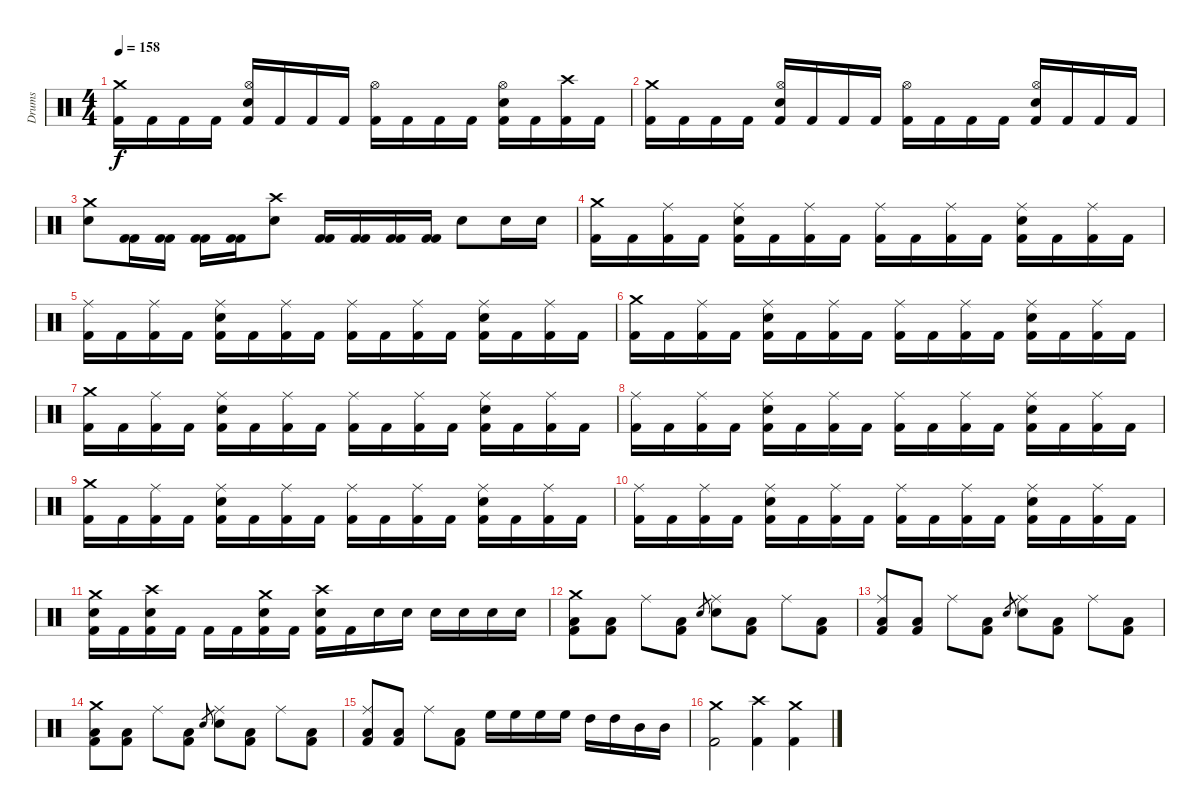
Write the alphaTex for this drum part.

\track ("Drums" "Drums") {instrument percussion}
\staff {score}
\articulation defaults
\ts (4 4)
\tempo 158
\clef neutral
\ks c
("Crash medium (hit)" "Kick (hit) 2").16{dy f} "Kick (hit) 2".16 "Kick (hit) 2".16 "Kick (hit) 2".16 ("Hi-Hat (open)" "Electric Snare (hit)" "Kick (hit) 2").16 "Kick (hit) 2".16 "Kick (hit) 2".16 "Kick (hit) 2".16 ("Hi-Hat (open)" "Kick (hit) 2").16 "Kick (hit) 2".16 "Kick (hit) 2".16 "Kick (hit) 2".16 ("Hi-Hat (open)" "Electric Snare (hit)" "Kick (hit) 2").16 "Kick (hit) 2".16 ("Crash high (hit)" "Kick (hit) 2").16 "Kick (hit) 2".16 |
("Crash medium (hit)" "Kick (hit) 2").16 "Kick (hit) 2".16 "Kick (hit) 2".16 "Kick (hit) 2".16 ("Hi-Hat (open)" "Electric Snare (hit)" "Kick (hit) 2").16 "Kick (hit) 2".16 "Kick (hit) 2".16 "Kick (hit) 2".16 ("Hi-Hat (open)" "Kick (hit) 2").16 "Kick (hit) 2".16 "Kick (hit) 2".16 "Kick (hit) 2".16 ("Hi-Hat (open)" "Electric Snare (hit)" "Kick (hit) 2").16 "Kick (hit) 2".16 "Kick (hit) 2".16 "Kick (hit) 2".16 |
("Crash medium (hit)" "Electric Snare (hit)").8 ("Kick (hit) 2" "Kick (hit) 2").16 ("Kick (hit) 2" "Kick (hit) 2").16 ("Kick (hit) 2" "Kick (hit) 2").16 ("Kick (hit) 2" "Kick (hit) 2").16 ("Crash high (hit)" "Electric Snare (hit)").8 ("Kick (hit) 2" "Kick (hit) 2").16 ("Kick (hit) 2" "Kick (hit) 2").16 ("Kick (hit) 2" "Kick (hit) 2").16 ("Kick (hit) 2" "Kick (hit) 2").16 "Electric Snare (hit)".8 "Electric Snare (hit)".16 "Electric Snare (hit)".16 |
("Crash medium (hit)" "Kick (hit) 2").16 "Kick (hit) 2".16 ("Ride (middle)" "Kick (hit) 2").16 "Kick (hit) 2".16 ("Ride (middle)" "Electric Snare (hit)" "Kick (hit) 2").16 "Kick (hit) 2".16 ("Ride (middle)" "Kick (hit) 2").16 "Kick (hit) 2".16 ("Ride (middle)" "Kick (hit) 2").16 "Kick (hit) 2".16 ("Ride (middle)" "Kick (hit) 2").16 "Kick (hit) 2".16 ("Ride (middle)" "Electric Snare (hit)" "Kick (hit) 2").16 "Kick (hit) 2".16 ("Ride (middle)" "Kick (hit) 2").16 "Kick (hit) 2".16 |
("Ride (middle)" "Kick (hit) 2").16 "Kick (hit) 2".16 ("Ride (middle)" "Kick (hit) 2").16 "Kick (hit) 2".16 ("Ride (middle)" "Electric Snare (hit)" "Kick (hit) 2").16 "Kick (hit) 2".16 ("Ride (middle)" "Kick (hit) 2").16 "Kick (hit) 2".16 ("Ride (middle)" "Kick (hit) 2").16 "Kick (hit) 2".16 ("Ride (middle)" "Kick (hit) 2").16 "Kick (hit) 2".16 ("Ride (middle)" "Electric Snare (hit)" "Kick (hit) 2").16 "Kick (hit) 2".16 ("Ride (middle)" "Kick (hit) 2").16 "Kick (hit) 2".16 |
("Crash medium (hit)" "Kick (hit) 2").16 "Kick (hit) 2".16 ("Ride (middle)" "Kick (hit) 2").16 "Kick (hit) 2".16 ("Ride (middle)" "Electric Snare (hit)" "Kick (hit) 2").16 "Kick (hit) 2".16 ("Ride (middle)" "Kick (hit) 2").16 "Kick (hit) 2".16 ("Ride (middle)" "Kick (hit) 2").16 "Kick (hit) 2".16 ("Ride (middle)" "Kick (hit) 2").16 "Kick (hit) 2".16 ("Ride (middle)" "Electric Snare (hit)" "Kick (hit) 2").16 "Kick (hit) 2".16 ("Ride (middle)" "Kick (hit) 2").16 "Kick (hit) 2".16 |
("Crash medium (hit)" "Kick (hit) 2").16 "Kick (hit) 2".16 ("Ride (middle)" "Kick (hit) 2").16 "Kick (hit) 2".16 ("Ride (middle)" "Electric Snare (hit)" "Kick (hit) 2").16 "Kick (hit) 2".16 ("Ride (middle)" "Kick (hit) 2").16 "Kick (hit) 2".16 ("Ride (middle)" "Kick (hit) 2").16 "Kick (hit) 2".16 ("Ride (middle)" "Kick (hit) 2").16 "Kick (hit) 2".16 ("Ride (middle)" "Electric Snare (hit)" "Kick (hit) 2").16 "Kick (hit) 2".16 ("Ride (middle)" "Kick (hit) 2").16 "Kick (hit) 2".16 |
("Ride (middle)" "Kick (hit) 2").16 "Kick (hit) 2".16 ("Ride (middle)" "Kick (hit) 2").16 "Kick (hit) 2".16 ("Ride (middle)" "Electric Snare (hit)" "Kick (hit) 2").16 "Kick (hit) 2".16 ("Ride (middle)" "Kick (hit) 2").16 "Kick (hit) 2".16 ("Ride (middle)" "Kick (hit) 2").16 "Kick (hit) 2".16 ("Ride (middle)" "Kick (hit) 2").16 "Kick (hit) 2".16 ("Ride (middle)" "Electric Snare (hit)" "Kick (hit) 2").16 "Kick (hit) 2".16 ("Ride (middle)" "Kick (hit) 2").16 "Kick (hit) 2".16 |
("Crash medium (hit)" "Kick (hit) 2").16 "Kick (hit) 2".16 ("Ride (middle)" "Kick (hit) 2").16 "Kick (hit) 2".16 ("Ride (middle)" "Electric Snare (hit)" "Kick (hit) 2").16 "Kick (hit) 2".16 ("Ride (middle)" "Kick (hit) 2").16 "Kick (hit) 2".16 ("Ride (middle)" "Kick (hit) 2").16 "Kick (hit) 2".16 ("Ride (middle)" "Kick (hit) 2").16 "Kick (hit) 2".16 ("Ride (middle)" "Electric Snare (hit)" "Kick (hit) 2").16 "Kick (hit) 2".16 ("Ride (middle)" "Kick (hit) 2").16 "Kick (hit) 2".16 |
("Ride (middle)" "Kick (hit) 2").16 "Kick (hit) 2".16 ("Ride (middle)" "Kick (hit) 2").16 "Kick (hit) 2".16 ("Ride (middle)" "Electric Snare (hit)" "Kick (hit) 2").16 "Kick (hit) 2".16 ("Ride (middle)" "Kick (hit) 2").16 "Kick (hit) 2".16 ("Ride (middle)" "Kick (hit) 2").16 "Kick (hit) 2".16 ("Ride (middle)" "Kick (hit) 2").16 "Kick (hit) 2".16 ("Ride (middle)" "Electric Snare (hit)" "Kick (hit) 2").16 "Kick (hit) 2".16 ("Ride (middle)" "Kick (hit) 2").16 "Kick (hit) 2".16 |
("Crash medium (hit)" "Electric Snare (hit)" "Kick (hit) 2").16 "Kick (hit) 2".16 ("Crash high (hit)" "Electric Snare (hit)" "Kick (hit) 2").16 "Kick (hit) 2".16 "Kick (hit) 2".16 "Kick (hit) 2".16 ("Crash medium (hit)" "Electric Snare (hit)" "Kick (hit) 2").16 "Kick (hit) 2".16 ("Crash high (hit)" "Electric Snare (hit)" "Kick (hit) 2").16 "Kick (hit) 2".16 "Electric Snare (hit)".16 "Electric Snare (hit)".16 "Electric Snare (hit)".16 "Electric Snare (hit)".16 "Electric Snare (hit)".16 "Electric Snare (hit)".16 |
("Crash medium (hit)" "Low Tom (hit)" "Kick (hit) 2").8 ("Low Tom (hit)" "Kick (hit) 2").8 "Ride (middle)".8 ("Low Tom (hit)" "Kick (hit) 2").8 "Electric Snare (hit)".8{gr} ("Ride (middle)" "Electric Snare (hit)").8 ("Low Tom (hit)" "Kick (hit) 2").8 "Ride (middle)".8 ("Low Tom (hit)" "Kick (hit) 2").8 |
("Ride (middle)" "Low Tom (hit)" "Kick (hit) 2").8 ("Low Tom (hit)" "Kick (hit) 2").8 "Ride (middle)".8 ("Low Tom (hit)" "Kick (hit) 2").8 "Electric Snare (hit)".8{gr} ("Ride (middle)" "Electric Snare (hit)").8 ("Low Tom (hit)" "Kick (hit) 2").8 "Ride (middle)".8 ("Low Tom (hit)" "Kick (hit) 2").8 |
("Crash medium (hit)" "Low Tom (hit)" "Kick (hit) 2").8 ("Low Tom (hit)" "Kick (hit) 2").8 "Ride (middle)".8 ("Low Tom (hit)" "Kick (hit) 2").8 "Electric Snare (hit)".8{gr} ("Ride (middle)" "Electric Snare (hit)").8 ("Low Tom (hit)" "Kick (hit) 2").8 "Ride (middle)".8 ("Low Tom (hit)" "Kick (hit) 2").8 |
("Ride (middle)" "Low Tom (hit)" "Kick (hit) 2").8 ("Low Tom (hit)" "Kick (hit) 2").8 "Ride (middle)".8 ("Low Tom (hit)" "Kick (hit) 2").8 "High Floor Tom (hit)".16 "High Floor Tom (hit)".16 "High Floor Tom (hit)".16 "High Floor Tom (hit)".16 "High Tom (hit)".16 "High Tom (hit)".16 "Mid Tom (hit)".16 "Mid Tom (hit)".16 |
("Crash medium (hit)" "Kick (hit) 2").2 ("Crash high (hit)" "Kick (hit) 2").4 ("Crash medium (hit)" "Kick (hit) 2").4
